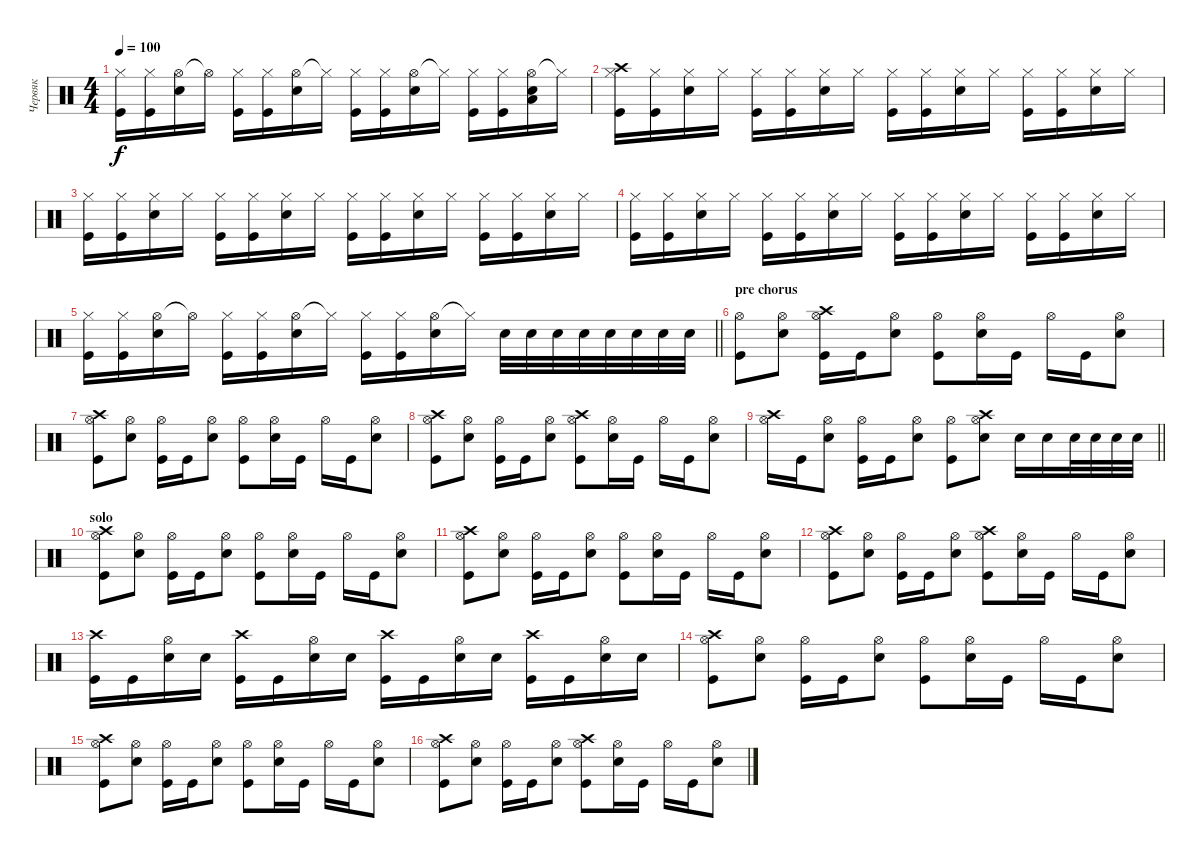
\track ("Червяк" "Червяк") {instrument percussion}
\staff {score}
\articulation defaults
\ts (4 4)
\tempo 100
\clef neutral
\ks c
("Hi-Hat (closed)" "Kick (hit)").16{dy f} ("Hi-Hat (closed)" "Kick (hit)").16 ("Hi-Hat (open)" "Electric Snare (hit)").16 "Hi-Hat (open)"{t}.16 ("Hi-Hat (closed)" "Kick (hit)").16 ("Hi-Hat (closed)" "Kick (hit)").16 ("Hi-Hat (open)" "Electric Snare (hit)").16 "Hi-Hat (closed)"{t}.16 ("Hi-Hat (closed)" "Kick (hit)").16 ("Hi-Hat (closed)" "Kick (hit)").16 ("Hi-Hat (open)" "Electric Snare (hit)").16 "Hi-Hat (closed)"{t}.16 ("Hi-Hat (closed)" "Kick (hit)").16 ("Hi-Hat (closed)" "Kick (hit)").16 ("Hi-Hat (open)" "Low Tom (hit)" "Electric Snare (hit)").16 "Hi-Hat (closed)"{t}.16 |
("Hi-Hat (closed)" "Crash high (hit)" "Kick (hit)").16 ("Hi-Hat (closed)" "Kick (hit)").16 ("Hi-Hat (closed)" "Electric Snare (hit)").16 "Hi-Hat (closed)".16 ("Hi-Hat (closed)" "Kick (hit)").16 ("Hi-Hat (closed)" "Kick (hit)").16 ("Hi-Hat (closed)" "Electric Snare (hit)").16 "Hi-Hat (closed)".16 ("Hi-Hat (closed)" "Kick (hit)").16 ("Hi-Hat (closed)" "Kick (hit)").16 ("Hi-Hat (closed)" "Electric Snare (hit)").16 "Hi-Hat (closed)".16 ("Hi-Hat (closed)" "Kick (hit)").16 ("Hi-Hat (closed)" "Kick (hit)").16 ("Hi-Hat (closed)" "Electric Snare (hit)").16 "Hi-Hat (closed)".16 |
("Hi-Hat (closed)" "Kick (hit)").16 ("Hi-Hat (closed)" "Kick (hit)").16 ("Hi-Hat (closed)" "Electric Snare (hit)").16 "Hi-Hat (closed)".16 ("Hi-Hat (closed)" "Kick (hit)").16 ("Hi-Hat (closed)" "Kick (hit)").16 ("Hi-Hat (closed)" "Electric Snare (hit)").16 "Hi-Hat (closed)".16 ("Hi-Hat (closed)" "Kick (hit)").16 ("Hi-Hat (closed)" "Kick (hit)").16 ("Hi-Hat (closed)" "Electric Snare (hit)").16 "Hi-Hat (closed)".16 ("Hi-Hat (closed)" "Kick (hit)").16 ("Hi-Hat (closed)" "Kick (hit)").16 ("Hi-Hat (closed)" "Electric Snare (hit)").16 "Hi-Hat (closed)".16 |
("Hi-Hat (closed)" "Kick (hit)").16 ("Hi-Hat (closed)" "Kick (hit)").16 ("Hi-Hat (closed)" "Electric Snare (hit)").16 "Hi-Hat (closed)".16 ("Hi-Hat (closed)" "Kick (hit)").16 ("Hi-Hat (closed)" "Kick (hit)").16 ("Hi-Hat (closed)" "Electric Snare (hit)").16 "Hi-Hat (closed)".16 ("Hi-Hat (closed)" "Kick (hit)").16 ("Hi-Hat (closed)" "Kick (hit)").16 ("Hi-Hat (closed)" "Electric Snare (hit)").16 "Hi-Hat (closed)".16 ("Hi-Hat (closed)" "Kick (hit)").16 ("Hi-Hat (closed)" "Kick (hit)").16 ("Hi-Hat (closed)" "Electric Snare (hit)").16 "Hi-Hat (closed)".16 |
\barLineRight lightlight
("Hi-Hat (closed)" "Kick (hit)").16 ("Hi-Hat (closed)" "Kick (hit)").16 ("Hi-Hat (open)" "Electric Snare (hit)").16 "Hi-Hat (open)"{t}.16 ("Hi-Hat (closed)" "Kick (hit)").16 ("Hi-Hat (closed)" "Kick (hit)").16 ("Hi-Hat (open)" "Electric Snare (hit)").16 "Hi-Hat (closed)"{t}.16 ("Hi-Hat (closed)" "Kick (hit)").16 ("Hi-Hat (closed)" "Kick (hit)").16 ("Hi-Hat (open)" "Electric Snare (hit)").16 "Hi-Hat (closed)"{t}.16 "Electric Snare (hit)".32 "Electric Snare (hit)".32 "Electric Snare (hit)".32 "Electric Snare (hit)".32 "Electric Snare (hit)".32 "Electric Snare (hit)".32 "Electric Snare (hit)".32 "Electric Snare (hit)".32 |
\section ("" "pre chorus")
("Hi-Hat (open)" "Kick (hit)").8 ("Hi-Hat (open)" "Electric Snare (hit)").8 ("Hi-Hat (open)" "Crash high (hit)" "Kick (hit)").16 "Kick (hit)".16 ("Hi-Hat (open)" "Electric Snare (hit)").8 ("Hi-Hat (open)" "Kick (hit)").8 ("Hi-Hat (open)" "Electric Snare (hit)").16 "Kick (hit)".16 "Hi-Hat (open)".16 "Kick (hit)".16 ("Hi-Hat (open)" "Electric Snare (hit)").8 |
("Hi-Hat (open)" "Crash high (hit)" "Kick (hit)").8 ("Hi-Hat (open)" "Electric Snare (hit)").8 ("Hi-Hat (open)" "Kick (hit)").16 "Kick (hit)".16 ("Hi-Hat (open)" "Electric Snare (hit)").8 ("Hi-Hat (open)" "Kick (hit)").8 ("Hi-Hat (open)" "Electric Snare (hit)").16 "Kick (hit)".16 "Hi-Hat (open)".16 "Kick (hit)".16 ("Hi-Hat (open)" "Electric Snare (hit)").8 |
("Hi-Hat (open)" "Crash high (hit)" "Kick (hit)").8 ("Hi-Hat (open)" "Electric Snare (hit)").8 ("Hi-Hat (open)" "Kick (hit)").16 "Kick (hit)".16 ("Hi-Hat (open)" "Electric Snare (hit)").8 ("Hi-Hat (open)" "Crash high (hit)" "Kick (hit)").8 ("Hi-Hat (open)" "Electric Snare (hit)").16 "Kick (hit)".16 "Hi-Hat (open)".16 "Kick (hit)".16 ("Hi-Hat (open)" "Electric Snare (hit)").8 |
\barLineRight lightlight
("Hi-Hat (open)" "Crash high (hit)").16 "Kick (hit)".16 ("Hi-Hat (open)" "Electric Snare (hit)").8 ("Hi-Hat (open)" "Kick (hit)").16 "Kick (hit)".16 ("Hi-Hat (open)" "Electric Snare (hit)").8 ("Hi-Hat (open)" "Kick (hit)").8 ("Hi-Hat (open)" "Crash high (hit)" "Electric Snare (hit)").8 "Electric Snare (hit)".16 "Electric Snare (hit)".16 "Electric Snare (hit)".32 "Electric Snare (hit)".32 "Electric Snare (hit)".32 "Electric Snare (hit)".32 |
\section ("" "solo")
("Hi-Hat (open)" "Crash high (hit)" "Kick (hit)").8 ("Hi-Hat (open)" "Electric Snare (hit)").8 ("Hi-Hat (open)" "Kick (hit)").16 "Kick (hit)".16 ("Hi-Hat (open)" "Electric Snare (hit)").8 ("Hi-Hat (open)" "Kick (hit)").8 ("Hi-Hat (open)" "Electric Snare (hit)").16 "Kick (hit)".16 "Hi-Hat (open)".16 "Kick (hit)".16 ("Hi-Hat (open)" "Electric Snare (hit)").8 |
("Hi-Hat (open)" "Crash high (hit)" "Kick (hit)").8 ("Hi-Hat (open)" "Electric Snare (hit)").8 ("Hi-Hat (open)" "Kick (hit)").16 "Kick (hit)".16 ("Hi-Hat (open)" "Electric Snare (hit)").8 ("Hi-Hat (open)" "Kick (hit)").8 ("Hi-Hat (open)" "Electric Snare (hit)").16 "Kick (hit)".16 "Hi-Hat (open)".16 "Kick (hit)".16 ("Hi-Hat (open)" "Electric Snare (hit)").8 |
("Hi-Hat (open)" "Crash high (hit)" "Kick (hit)").8 ("Hi-Hat (open)" "Electric Snare (hit)").8 ("Hi-Hat (open)" "Kick (hit)").16 "Kick (hit)".16 ("Hi-Hat (open)" "Electric Snare (hit)").8 ("Hi-Hat (open)" "Crash high (hit)" "Kick (hit)").8 ("Hi-Hat (open)" "Electric Snare (hit)").16 "Kick (hit)".16 "Hi-Hat (open)".16 "Kick (hit)".16 ("Hi-Hat (open)" "Electric Snare (hit)").8 |
("Crash high (hit)" "Kick (hit)").16 "Kick (hit)".16 ("Hi-Hat (open)" "Electric Snare (hit)").16 "Electric Snare (hit)".16 ("Crash high (hit)" "Kick (hit)").16 "Kick (hit)".16 ("Hi-Hat (open)" "Electric Snare (hit)").16 "Electric Snare (hit)".16 ("Crash high (hit)" "Kick (hit)").16 "Kick (hit)".16 ("Hi-Hat (open)" "Electric Snare (hit)").16 "Electric Snare (hit)".16 ("Crash high (hit)" "Kick (hit)").16 "Kick (hit)".16 ("Hi-Hat (open)" "Electric Snare (hit)").16 "Electric Snare (hit)".16 |
("Hi-Hat (open)" "Crash high (hit)" "Kick (hit)").8 ("Hi-Hat (open)" "Electric Snare (hit)").8 ("Hi-Hat (open)" "Kick (hit)").16 "Kick (hit)".16 ("Hi-Hat (open)" "Electric Snare (hit)").8 ("Hi-Hat (open)" "Kick (hit)").8 ("Hi-Hat (open)" "Electric Snare (hit)").16 "Kick (hit)".16 "Hi-Hat (open)".16 "Kick (hit)".16 ("Hi-Hat (open)" "Electric Snare (hit)").8 |
("Hi-Hat (open)" "Crash high (hit)" "Kick (hit)").8 ("Hi-Hat (open)" "Electric Snare (hit)").8 ("Hi-Hat (open)" "Kick (hit)").16 "Kick (hit)".16 ("Hi-Hat (open)" "Electric Snare (hit)").8 ("Hi-Hat (open)" "Kick (hit)").8 ("Hi-Hat (open)" "Electric Snare (hit)").16 "Kick (hit)".16 "Hi-Hat (open)".16 "Kick (hit)".16 ("Hi-Hat (open)" "Electric Snare (hit)").8 |
("Hi-Hat (open)" "Crash high (hit)" "Kick (hit)").8 ("Hi-Hat (open)" "Electric Snare (hit)").8 ("Hi-Hat (open)" "Kick (hit)").16 "Kick (hit)".16 ("Hi-Hat (open)" "Electric Snare (hit)").8 ("Hi-Hat (open)" "Crash high (hit)" "Kick (hit)").8 ("Hi-Hat (open)" "Electric Snare (hit)").16 "Kick (hit)".16 "Hi-Hat (open)".16 "Kick (hit)".16 ("Hi-Hat (open)" "Electric Snare (hit)").8
